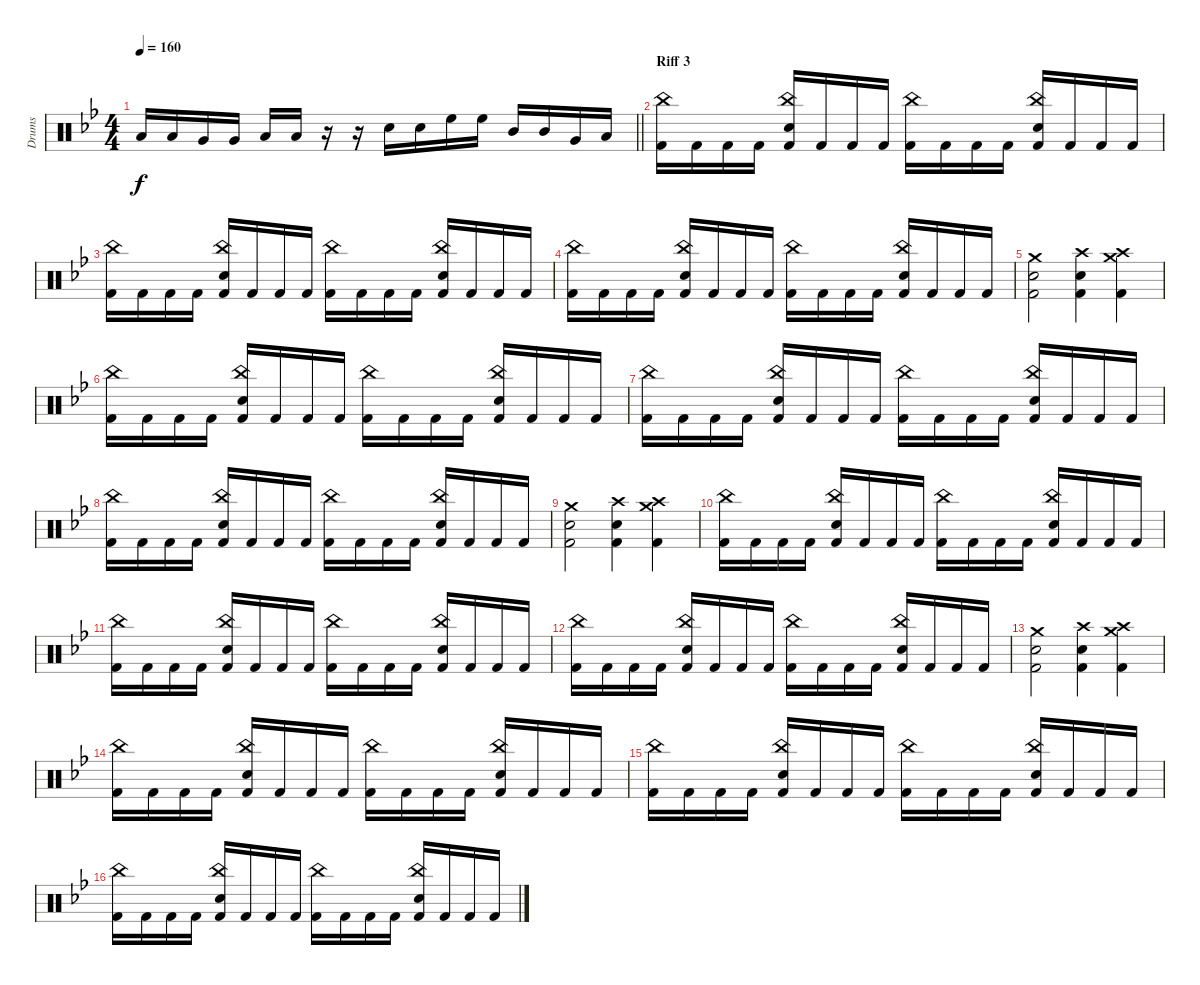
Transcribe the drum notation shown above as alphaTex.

\track ("Drums" "Drums") {instrument percussion}
\staff {score}
\articulation defaults
\ts (4 4)
\tempo 160
\clef neutral
\barLineRight lightlight
\ks bb "Low Tom (hit)".16{dy f} "Low Tom (hit)".16 "Very Low Tom (hit)".16 "Very Low Tom (hit)".16 "Low Floor Tom (hit)".16 "Low Floor Tom (hit)".16
r.16 r.16 "Electric Snare (hit)".16 "Electric Snare (hit)".16 "High Floor Tom (hit)".16 "High Floor Tom (hit)".16 "Mid Tom (hit)".16 "Mid Tom (hit)".16 "Very Low Tom (hit)".16 "Low Floor Tom (hit)".16 |
\section ("" "Riff 3")
("China (hit)" "Kick (hit) 2").16 "Kick (hit) 2".16 "Kick (hit) 2".16 "Kick (hit) 2".16 ("China (hit)" "Electric Snare (hit)" "Kick (hit) 2").16 "Kick (hit) 2".16 "Kick (hit) 2".16 "Kick (hit) 2".16 ("China (hit)" "Kick (hit) 2").16 "Kick (hit) 2".16 "Kick (hit) 2".16 "Kick (hit) 2".16 ("China (hit)" "Electric Snare (hit)" "Kick (hit) 2").16 "Kick (hit) 2".16 "Kick (hit) 2".16 "Kick (hit) 2".16 |
("China (hit)" "Kick (hit) 2").16 "Kick (hit) 2".16 "Kick (hit) 2".16 "Kick (hit) 2".16 ("China (hit)" "Electric Snare (hit)" "Kick (hit) 2").16 "Kick (hit) 2".16 "Kick (hit) 2".16 "Kick (hit) 2".16 ("China (hit)" "Kick (hit) 2").16 "Kick (hit) 2".16 "Kick (hit) 2".16 "Kick (hit) 2".16 ("China (hit)" "Electric Snare (hit)" "Kick (hit) 2").16 "Kick (hit) 2".16 "Kick (hit) 2".16 "Kick (hit) 2".16 |
("China (hit)" "Kick (hit) 2").16 "Kick (hit) 2".16 "Kick (hit) 2".16 "Kick (hit) 2".16 ("China (hit)" "Electric Snare (hit)" "Kick (hit) 2").16 "Kick (hit) 2".16 "Kick (hit) 2".16 "Kick (hit) 2".16 ("China (hit)" "Kick (hit) 2").16 "Kick (hit) 2".16 "Kick (hit) 2".16 "Kick (hit) 2".16 ("China (hit)" "Electric Snare (hit)" "Kick (hit) 2").16 "Kick (hit) 2".16 "Kick (hit) 2".16 "Kick (hit) 2".16 |
("Kick (hit) 2" "Crash medium (hit)" "Electric Snare (hit)").2 ("Kick (hit) 2" "Crash high (hit)" "Electric Snare (hit)").4 ("Kick (hit) 2" "Crash medium (hit)" "Crash high (hit)").4 |
("China (hit)" "Kick (hit) 2").16 "Kick (hit) 2".16 "Kick (hit) 2".16 "Kick (hit) 2".16 ("China (hit)" "Electric Snare (hit)" "Kick (hit) 2").16 "Kick (hit) 2".16 "Kick (hit) 2".16 "Kick (hit) 2".16 ("China (hit)" "Kick (hit) 2").16 "Kick (hit) 2".16 "Kick (hit) 2".16 "Kick (hit) 2".16 ("China (hit)" "Electric Snare (hit)" "Kick (hit) 2").16 "Kick (hit) 2".16 "Kick (hit) 2".16 "Kick (hit) 2".16 |
("China (hit)" "Kick (hit) 2").16 "Kick (hit) 2".16 "Kick (hit) 2".16 "Kick (hit) 2".16 ("China (hit)" "Electric Snare (hit)" "Kick (hit) 2").16 "Kick (hit) 2".16 "Kick (hit) 2".16 "Kick (hit) 2".16 ("China (hit)" "Kick (hit) 2").16 "Kick (hit) 2".16 "Kick (hit) 2".16 "Kick (hit) 2".16 ("China (hit)" "Electric Snare (hit)" "Kick (hit) 2").16 "Kick (hit) 2".16 "Kick (hit) 2".16 "Kick (hit) 2".16 |
("China (hit)" "Kick (hit) 2").16 "Kick (hit) 2".16 "Kick (hit) 2".16 "Kick (hit) 2".16 ("China (hit)" "Electric Snare (hit)" "Kick (hit) 2").16 "Kick (hit) 2".16 "Kick (hit) 2".16 "Kick (hit) 2".16 ("China (hit)" "Kick (hit) 2").16 "Kick (hit) 2".16 "Kick (hit) 2".16 "Kick (hit) 2".16 ("China (hit)" "Electric Snare (hit)" "Kick (hit) 2").16 "Kick (hit) 2".16 "Kick (hit) 2".16 "Kick (hit) 2".16 |
("Kick (hit) 2" "Crash medium (hit)" "Electric Snare (hit)").2 ("Kick (hit) 2" "Crash high (hit)" "Electric Snare (hit)").4 ("Kick (hit) 2" "Crash medium (hit)" "Crash high (hit)").4 |
("China (hit)" "Kick (hit) 2").16 "Kick (hit) 2".16 "Kick (hit) 2".16 "Kick (hit) 2".16 ("China (hit)" "Electric Snare (hit)" "Kick (hit) 2").16 "Kick (hit) 2".16 "Kick (hit) 2".16 "Kick (hit) 2".16 ("China (hit)" "Kick (hit) 2").16 "Kick (hit) 2".16 "Kick (hit) 2".16 "Kick (hit) 2".16 ("China (hit)" "Electric Snare (hit)" "Kick (hit) 2").16 "Kick (hit) 2".16 "Kick (hit) 2".16 "Kick (hit) 2".16 |
("China (hit)" "Kick (hit) 2").16 "Kick (hit) 2".16 "Kick (hit) 2".16 "Kick (hit) 2".16 ("China (hit)" "Electric Snare (hit)" "Kick (hit) 2").16 "Kick (hit) 2".16 "Kick (hit) 2".16 "Kick (hit) 2".16 ("China (hit)" "Kick (hit) 2").16 "Kick (hit) 2".16 "Kick (hit) 2".16 "Kick (hit) 2".16 ("China (hit)" "Electric Snare (hit)" "Kick (hit) 2").16 "Kick (hit) 2".16 "Kick (hit) 2".16 "Kick (hit) 2".16 |
("China (hit)" "Kick (hit) 2").16 "Kick (hit) 2".16 "Kick (hit) 2".16 "Kick (hit) 2".16 ("China (hit)" "Electric Snare (hit)" "Kick (hit) 2").16 "Kick (hit) 2".16 "Kick (hit) 2".16 "Kick (hit) 2".16 ("China (hit)" "Kick (hit) 2").16 "Kick (hit) 2".16 "Kick (hit) 2".16 "Kick (hit) 2".16 ("China (hit)" "Electric Snare (hit)" "Kick (hit) 2").16 "Kick (hit) 2".16 "Kick (hit) 2".16 "Kick (hit) 2".16 |
("Kick (hit) 2" "Crash medium (hit)" "Electric Snare (hit)").2 ("Kick (hit) 2" "Crash high (hit)" "Electric Snare (hit)").4 ("Kick (hit) 2" "Crash medium (hit)" "Crash high (hit)").4 |
("China (hit)" "Kick (hit) 2").16 "Kick (hit) 2".16 "Kick (hit) 2".16 "Kick (hit) 2".16 ("China (hit)" "Electric Snare (hit)" "Kick (hit) 2").16 "Kick (hit) 2".16 "Kick (hit) 2".16 "Kick (hit) 2".16 ("China (hit)" "Kick (hit) 2").16 "Kick (hit) 2".16 "Kick (hit) 2".16 "Kick (hit) 2".16 ("China (hit)" "Electric Snare (hit)" "Kick (hit) 2").16 "Kick (hit) 2".16 "Kick (hit) 2".16 "Kick (hit) 2".16 |
("China (hit)" "Kick (hit) 2").16 "Kick (hit) 2".16 "Kick (hit) 2".16 "Kick (hit) 2".16 ("China (hit)" "Electric Snare (hit)" "Kick (hit) 2").16 "Kick (hit) 2".16 "Kick (hit) 2".16 "Kick (hit) 2".16 ("China (hit)" "Kick (hit) 2").16 "Kick (hit) 2".16 "Kick (hit) 2".16 "Kick (hit) 2".16 ("China (hit)" "Electric Snare (hit)" "Kick (hit) 2").16 "Kick (hit) 2".16 "Kick (hit) 2".16 "Kick (hit) 2".16 |
("China (hit)" "Kick (hit) 2").16 "Kick (hit) 2".16 "Kick (hit) 2".16 "Kick (hit) 2".16 ("China (hit)" "Electric Snare (hit)" "Kick (hit) 2").16 "Kick (hit) 2".16 "Kick (hit) 2".16 "Kick (hit) 2".16 ("China (hit)" "Kick (hit) 2").16 "Kick (hit) 2".16 "Kick (hit) 2".16 "Kick (hit) 2".16 ("China (hit)" "Electric Snare (hit)" "Kick (hit) 2").16 "Kick (hit) 2".16 "Kick (hit) 2".16 "Kick (hit) 2".16
